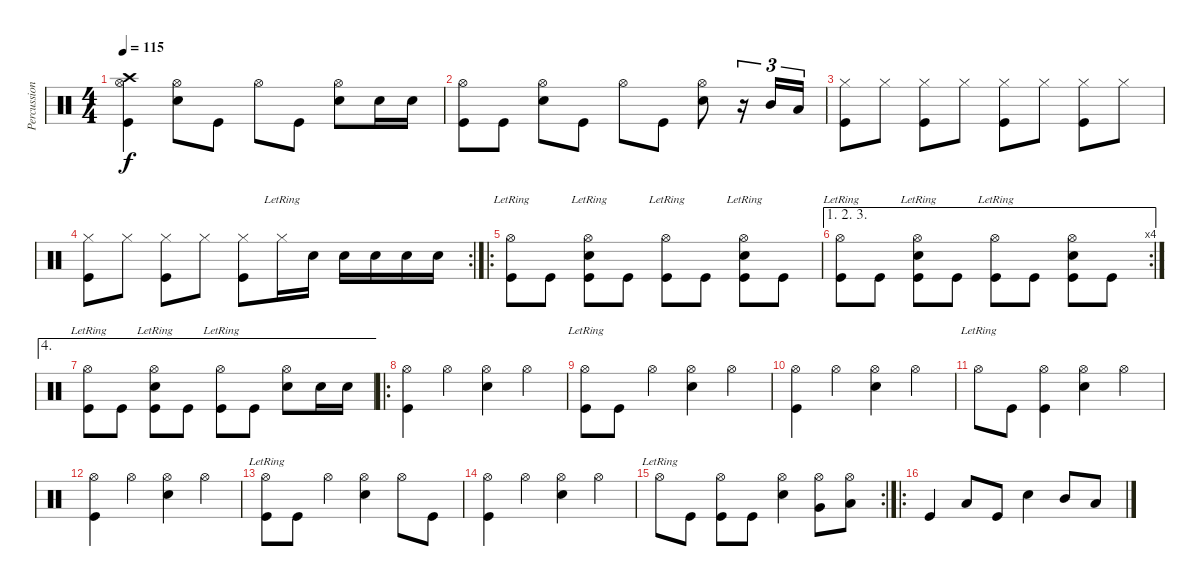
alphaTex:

\track ("Percussion" "Percussion") {instrument percussion}
\staff {score}
\articulation defaults
\ts (4 4)
\tempo 115
\clef neutral
\ks c
("Hi-Hat (open)" "Crash high (hit)" "Kick (hit)").4{dy f} ("Hi-Hat (open)" "Snare (hit) 2").8 "Kick (hit)".8 "Hi-Hat (open)".8 "Kick (hit)".8 ("Hi-Hat (open)" "Snare (hit) 2").8 "Snare (hit) 2".16 "Snare (hit) 2".16 |
("Hi-Hat (open)" "Kick (hit)").8 "Kick (hit)".8 ("Hi-Hat (open)" "Snare (hit) 2").8 "Kick (hit)".8 "Hi-Hat (open)".8 "Kick (hit)".8 ("Hi-Hat (open)" "Snare (hit) 2").8 r.16{tu (3 2)} "Mid Tom (hit)".16{tu (3 2)} "Low Tom (hit)".16{tu (3 2)} |
("Hi-Hat (closed)" "Kick (hit)").8 "Hi-Hat (closed)".8 ("Hi-Hat (closed)" "Kick (hit)").8 "Hi-Hat (closed)".8 ("Hi-Hat (closed)" "Kick (hit)").8 "Hi-Hat (closed)".8 ("Hi-Hat (closed)" "Kick (hit)").8 "Hi-Hat (closed)".8 |
\rc 2
("Hi-Hat (closed)" "Kick (hit)").8 "Hi-Hat (closed)".8 ("Hi-Hat (closed)" "Kick (hit)").8 "Hi-Hat (closed)".8 ("Hi-Hat (closed)" "Kick (hit)").8 "Hi-Hat (closed)"{lr}.16 "Snare (hit) 2".16 "Snare (hit) 2".16 "Snare (hit) 2".16 "Snare (hit) 2".16 "Snare (hit) 2".16 |
\ro
("Hi-Hat (open)"{lr} "Kick (hit)").8 "Kick (hit)".8 ("Hi-Hat (open)"{lr} "Snare (hit) 2" "Kick (hit)").8 "Kick (hit)".8 ("Hi-Hat (open)"{lr} "Kick (hit)").8 "Kick (hit)".8 ("Hi-Hat (open)"{lr} "Snare (hit) 2" "Kick (hit)").8 "Kick (hit)".8 |
\ae (1 2 3)
\rc 4
("Hi-Hat (open)"{lr} "Kick (hit)").8 "Kick (hit)".8 ("Hi-Hat (open)"{lr} "Snare (hit) 2" "Kick (hit)").8 "Kick (hit)".8 ("Hi-Hat (open)"{lr} "Kick (hit)").8 "Kick (hit)".8 ("Hi-Hat (open)" "Snare (hit) 2" "Kick (hit)").8 "Kick (hit)".8 |
\ae 4
("Hi-Hat (open)"{lr} "Kick (hit)").8 "Kick (hit)".8 ("Hi-Hat (open)"{lr} "Snare (hit) 2" "Kick (hit)").8 "Kick (hit)".8 ("Hi-Hat (open)"{lr} "Kick (hit)").8 "Kick (hit)".8 ("Hi-Hat (open)" "Snare (hit) 2").8 "Snare (hit) 2".16 "Snare (hit) 2".16 |
\ro
("Hi-Hat (open)" "Kick (hit)").4 "Hi-Hat (open)".4 ("Hi-Hat (open)" "Snare (hit) 2").4 "Hi-Hat (open)".4 |
("Hi-Hat (open)"{lr} "Kick (hit)").8 "Kick (hit)".8 "Hi-Hat (open)".4 ("Hi-Hat (open)" "Snare (hit) 2").4 "Hi-Hat (open)".4 |
("Hi-Hat (open)" "Kick (hit)").4 "Hi-Hat (open)".4 ("Hi-Hat (open)" "Snare (hit) 2").4 "Hi-Hat (open)".4 |
"Hi-Hat (open)"{lr}.8 "Kick (hit)".8 ("Hi-Hat (open)" "Kick (hit)").4 ("Hi-Hat (open)" "Snare (hit) 2").4 "Hi-Hat (open)".4 |
("Hi-Hat (open)" "Kick (hit)").4 "Hi-Hat (open)".4 ("Hi-Hat (open)" "Snare (hit) 2").4 "Hi-Hat (open)".4 |
("Hi-Hat (open)"{lr} "Kick (hit)").8 "Kick (hit)".8 "Hi-Hat (open)".4 ("Hi-Hat (open)" "Snare (hit) 2").4 "Hi-Hat (open)".8 "Kick (hit)".8 |
("Hi-Hat (open)" "Kick (hit)").4 "Hi-Hat (open)".4 ("Hi-Hat (open)" "Snare (hit) 2").4 "Hi-Hat (open)".4 |
\rc 2 "Hi-Hat (open)"{lr}.8 "Kick (hit)".8
("Hi-Hat (open)" "Kick (hit)").8 "Kick (hit)".8 ("Hi-Hat (open)" "Snare (hit) 2").4 ("Hi-Hat (open)" "Very Low Tom (hit)").8 ("Hi-Hat (open)" "Low Floor Tom (hit)").8 |
\ro "Kick (hit)".4 "Low Floor Tom (hit)".8 "Kick (hit)".8 "Snare (hit) 2".4 "Mid Tom (hit)".8 "Low Tom (hit)".8
